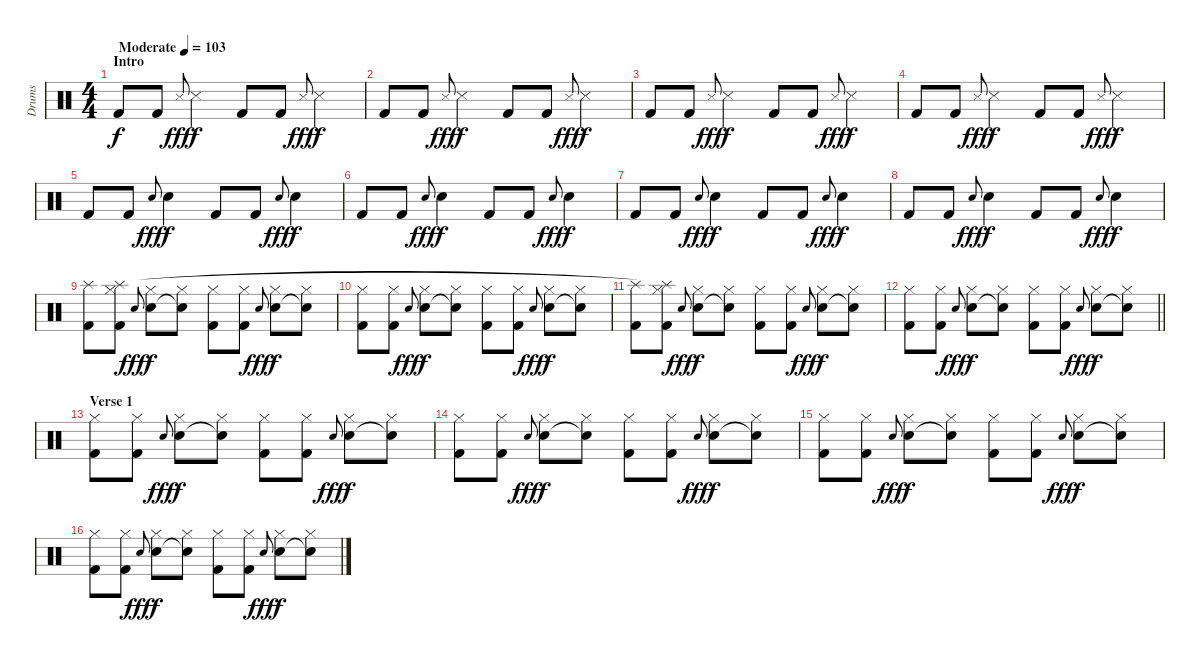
\track ("Drums" "Drums") {instrument percussion}
\staff {score}
\articulation defaults
\ts (4 4)
\section ("" "Intro")
\tempo (103 "Moderate")
\clef neutral
\ks c "Kick (hit) 2".8{dy f} "Kick (hit) 2".8 "Snare (side stick) 3"{h}.8{gr onbeat dy fff} "Snare (side stick) 3".4{dy f} "Kick (hit) 2".8 "Kick (hit) 2".8 "Snare (side stick) 3"{h}.8{gr onbeat dy fff} "Snare (side stick) 3".4{dy f}
|
"Kick (hit) 2".8 "Kick (hit) 2".8 "Snare (side stick) 3"{h}.8{gr onbeat dy fff} "Snare (side stick) 3".4{dy f} "Kick (hit) 2".8 "Kick (hit) 2".8 "Snare (side stick) 3"{h}.8{gr onbeat dy fff} "Snare (side stick) 3".4{dy f} |
"Kick (hit) 2".8 "Kick (hit) 2".8 "Snare (side stick) 3"{h}.8{gr onbeat dy fff} "Snare (side stick) 3".4{dy f} "Kick (hit) 2".8 "Kick (hit) 2".8 "Snare (side stick) 3"{h}.8{gr onbeat dy fff} "Snare (side stick) 3".4{dy f} |
"Kick (hit) 2".8 "Kick (hit) 2".8 "Snare (side stick) 3"{h}.8{gr onbeat dy fff} "Snare (side stick) 3".4{dy f} "Kick (hit) 2".8 "Kick (hit) 2".8 "Snare (side stick) 3"{h}.8{gr onbeat dy fff} "Snare (side stick) 3".4{dy f} |
"Kick (hit) 2".8 "Kick (hit) 2".8 "Snare (hit) 2"{h}.8{gr onbeat dy fff} "Snare (hit) 2".4{dy f} "Kick (hit) 2".8 "Kick (hit) 2".8 "Snare (hit) 2"{h}.8{gr onbeat dy fff} "Snare (hit) 2".4{dy f} |
"Kick (hit) 2".8 "Kick (hit) 2".8 "Snare (hit) 2"{h}.8{gr onbeat dy fff} "Snare (hit) 2".4{dy f} "Kick (hit) 2".8 "Kick (hit) 2".8 "Snare (hit) 2"{h}.8{gr onbeat dy fff} "Snare (hit) 2".4{dy f} |
"Kick (hit) 2".8 "Kick (hit) 2".8 "Snare (hit) 2"{h}.8{gr onbeat dy fff} "Snare (hit) 2".4{dy f} "Kick (hit) 2".8 "Kick (hit) 2".8 "Snare (hit) 2"{h}.8{gr onbeat dy fff} "Snare (hit) 2".4{dy f} |
"Kick (hit) 2".8 "Kick (hit) 2".8 "Snare (hit) 2"{h}.8{gr onbeat dy fff} "Snare (hit) 2".4{dy f} "Kick (hit) 2".8 "Kick (hit) 2".8 "Snare (hit) 2"{h}.8{gr onbeat dy fff} "Snare (hit) 2".4{dy f} |
("Kick (hit) 2" "Splash (hit)").8 ("Kick (hit) 2" "Hi-Hat (closed)" "Splash (hit)").8 "Snare (hit) 2"{h}.8{gr onbeat dy fff} ("Snare (hit) 2" "Hi-Hat (closed)").8{dy f} ("Snare (hit) 2"{t} "Hi-Hat (closed)").8 ("Kick (hit) 2" "Hi-Hat (closed)").8 ("Kick (hit) 2" "Hi-Hat (closed)").8 "Snare (hit) 2"{h}.8{gr onbeat dy fff} ("Snare (hit) 2" "Hi-Hat (closed)").8{dy f} ("Snare (hit) 2"{t} "Hi-Hat (closed)").8 |
("Kick (hit) 2" "Hi-Hat (closed)").8 ("Kick (hit) 2" "Hi-Hat (closed)").8 "Snare (hit) 2"{h}.8{gr onbeat dy fff} ("Snare (hit) 2" "Hi-Hat (closed)").8{dy f} ("Snare (hit) 2"{t} "Hi-Hat (closed)").8 ("Kick (hit) 2" "Hi-Hat (closed)").8 ("Kick (hit) 2" "Hi-Hat (closed)").8 "Snare (hit) 2"{h}.8{gr onbeat dy fff} ("Snare (hit) 2" "Hi-Hat (closed)").8{dy f} ("Snare (hit) 2"{t} "Hi-Hat (closed)").8 |
("Kick (hit) 2" "Splash (hit)").8 ("Kick (hit) 2" "Hi-Hat (closed)" "Splash (hit)"{t}).8 "Snare (hit) 2"{h}.8{gr onbeat dy fff} ("Snare (hit) 2" "Hi-Hat (closed)").8{dy f} ("Snare (hit) 2"{t} "Hi-Hat (closed)").8 ("Kick (hit) 2" "Hi-Hat (closed)").8 ("Kick (hit) 2" "Hi-Hat (closed)").8 "Snare (hit) 2"{h}.8{gr onbeat dy fff} ("Snare (hit) 2" "Hi-Hat (closed)").8{dy f} ("Snare (hit) 2"{t} "Hi-Hat (closed)").8 |
\barLineRight lightlight
("Kick (hit) 2" "Hi-Hat (closed)").8 ("Kick (hit) 2" "Hi-Hat (closed)").8 "Snare (hit) 2"{h}.8{gr onbeat dy fff} ("Snare (hit) 2" "Hi-Hat (closed)").8{dy f} ("Snare (hit) 2"{t} "Hi-Hat (closed)").8 ("Kick (hit) 2" "Hi-Hat (closed)").8 ("Kick (hit) 2" "Hi-Hat (closed)").8 "Snare (hit) 2"{h}.8{gr onbeat dy fff} ("Snare (hit) 2" "Hi-Hat (closed)").8{dy f} ("Snare (hit) 2"{t} "Hi-Hat (closed)").8 |
\section ("" "Verse 1")
("Kick (hit) 2" "Hi-Hat (closed)").8 ("Kick (hit) 2" "Hi-Hat (closed)").8 "Snare (hit) 2"{h}.8{gr onbeat dy fff} ("Snare (hit) 2" "Hi-Hat (closed)").8{dy f} ("Snare (hit) 2"{t} "Hi-Hat (closed)").8 ("Kick (hit) 2" "Hi-Hat (closed)").8 ("Kick (hit) 2" "Hi-Hat (closed)").8 "Snare (hit) 2"{h}.8{gr onbeat dy fff} ("Snare (hit) 2" "Hi-Hat (closed)").8{dy f} ("Snare (hit) 2"{t} "Hi-Hat (closed)").8 |
("Kick (hit) 2" "Hi-Hat (closed)").8 ("Kick (hit) 2" "Hi-Hat (closed)").8 "Snare (hit) 2"{h}.8{gr onbeat dy fff} ("Snare (hit) 2" "Hi-Hat (closed)").8{dy f} ("Snare (hit) 2"{t} "Hi-Hat (closed)").8 ("Kick (hit) 2" "Hi-Hat (closed)").8 ("Kick (hit) 2" "Hi-Hat (closed)").8 "Snare (hit) 2"{h}.8{gr onbeat dy fff} ("Snare (hit) 2" "Hi-Hat (closed)").8{dy f} ("Snare (hit) 2"{t} "Hi-Hat (closed)").8 |
("Kick (hit) 2" "Hi-Hat (closed)").8 ("Kick (hit) 2" "Hi-Hat (closed)").8 "Snare (hit) 2"{h}.8{gr onbeat dy fff} ("Snare (hit) 2" "Hi-Hat (closed)").8{dy f} ("Snare (hit) 2"{t} "Hi-Hat (closed)").8 ("Kick (hit) 2" "Hi-Hat (closed)").8 ("Kick (hit) 2" "Hi-Hat (closed)").8 "Snare (hit) 2"{h}.8{gr onbeat dy fff} ("Snare (hit) 2" "Hi-Hat (closed)").8{dy f} ("Snare (hit) 2"{t} "Hi-Hat (closed)").8 |
("Kick (hit) 2" "Hi-Hat (closed)").8 ("Kick (hit) 2" "Hi-Hat (closed)").8 "Snare (hit) 2"{h}.8{gr onbeat dy fff} ("Snare (hit) 2" "Hi-Hat (closed)").8{dy f} ("Snare (hit) 2"{t} "Hi-Hat (closed)").8 ("Kick (hit) 2" "Hi-Hat (closed)").8 ("Kick (hit) 2" "Hi-Hat (closed)").8 "Snare (hit) 2"{h}.8{gr onbeat dy fff} ("Snare (hit) 2" "Hi-Hat (closed)").8{dy f} ("Snare (hit) 2"{t} "Hi-Hat (closed)").8
